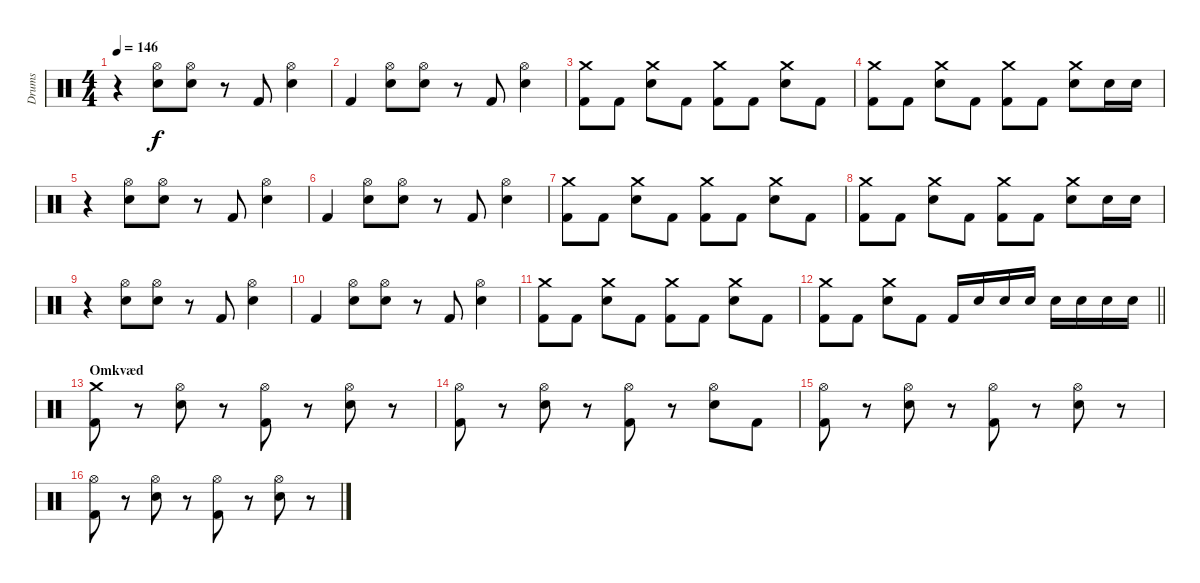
\track ("Drums" "Drums") {instrument percussion}
\staff {score}
\articulation defaults
\ts (4 4)
\tempo 146
\clef neutral
\ks c
r.4{dy f} ("Hi-Hat (open)" "Electric Snare (hit)").8 ("Hi-Hat (open)" "Electric Snare (hit)").8 r.8 "Kick (hit) 2".8 ("Hi-Hat (open)" "Electric Snare (hit)").4 |
"Kick (hit) 2".4 ("Hi-Hat (open)" "Electric Snare (hit)").8 ("Hi-Hat (open)" "Electric Snare (hit)").8 r.8 "Kick (hit) 2".8 ("Hi-Hat (open)" "Electric Snare (hit)").4 |
("Crash medium (hit)" "Kick (hit) 2").8 "Kick (hit) 2".8 ("Crash medium (hit)" "Electric Snare (hit)").8 "Kick (hit) 2".8 ("Crash medium (hit)" "Kick (hit) 2").8 "Kick (hit) 2".8 ("Crash medium (hit)" "Electric Snare (hit)").8 "Kick (hit) 2".8 |
("Crash medium (hit)" "Kick (hit) 2").8 "Kick (hit) 2".8 ("Crash medium (hit)" "Electric Snare (hit)").8 "Kick (hit) 2".8 ("Crash medium (hit)" "Kick (hit) 2").8 "Kick (hit) 2".8 ("Crash medium (hit)" "Electric Snare (hit)").8 "Electric Snare (hit)".16 "Electric Snare (hit)".16 |
r.4 ("Hi-Hat (open)" "Electric Snare (hit)").8 ("Hi-Hat (open)" "Electric Snare (hit)").8 r.8 "Kick (hit) 2".8 ("Hi-Hat (open)" "Electric Snare (hit)").4 |
"Kick (hit) 2".4 ("Hi-Hat (open)" "Electric Snare (hit)").8 ("Hi-Hat (open)" "Electric Snare (hit)").8 r.8 "Kick (hit) 2".8 ("Hi-Hat (open)" "Electric Snare (hit)").4 |
("Crash medium (hit)" "Kick (hit) 2").8 "Kick (hit) 2".8 ("Crash medium (hit)" "Electric Snare (hit)").8 "Kick (hit) 2".8 ("Crash medium (hit)" "Kick (hit) 2").8 "Kick (hit) 2".8 ("Crash medium (hit)" "Electric Snare (hit)").8 "Kick (hit) 2".8 |
("Crash medium (hit)" "Kick (hit) 2").8 "Kick (hit) 2".8 ("Crash medium (hit)" "Electric Snare (hit)").8 "Kick (hit) 2".8 ("Crash medium (hit)" "Kick (hit) 2").8 "Kick (hit) 2".8 ("Crash medium (hit)" "Electric Snare (hit)").8 "Electric Snare (hit)".16 "Electric Snare (hit)".16 |
r.4 ("Hi-Hat (open)" "Electric Snare (hit)").8 ("Hi-Hat (open)" "Electric Snare (hit)").8 r.8 "Kick (hit) 2".8 ("Hi-Hat (open)" "Electric Snare (hit)").4 |
"Kick (hit) 2".4 ("Hi-Hat (open)" "Electric Snare (hit)").8 ("Hi-Hat (open)" "Electric Snare (hit)").8 r.8 "Kick (hit) 2".8 ("Hi-Hat (open)" "Electric Snare (hit)").4 |
("Crash medium (hit)" "Kick (hit) 2").8 "Kick (hit) 2".8 ("Crash medium (hit)" "Electric Snare (hit)").8 "Kick (hit) 2".8 ("Crash medium (hit)" "Kick (hit) 2").8 "Kick (hit) 2".8 ("Crash medium (hit)" "Electric Snare (hit)").8 "Kick (hit) 2".8 |
\barLineRight lightlight
("Crash medium (hit)" "Kick (hit) 2").8 "Kick (hit) 2".8 ("Crash medium (hit)" "Electric Snare (hit)").8 "Kick (hit) 2".8 "Kick (hit) 2".16 "Electric Snare (hit)".16 "Electric Snare (hit)".16 "Electric Snare (hit)".16 "Electric Snare (hit)".16 "Electric Snare (hit)".16 "Electric Snare (hit)".16 "Electric Snare (hit)".16 |
\section ("" "Omkvæd")
("Crash medium (hit)" "Kick (hit) 2").8 r.8 ("Hi-Hat (open)" "Electric Snare (hit)").8 r.8 ("Hi-Hat (open)" "Kick (hit) 2").8 r.8 ("Hi-Hat (open)" "Electric Snare (hit)").8 r.8 |
("Hi-Hat (open)" "Kick (hit) 2").8 r.8 ("Hi-Hat (open)" "Electric Snare (hit)").8 r.8 ("Hi-Hat (open)" "Kick (hit) 2").8 r.8 ("Hi-Hat (open)" "Electric Snare (hit)").8 "Kick (hit) 2".8 |
("Hi-Hat (open)" "Kick (hit) 2").8 r.8 ("Hi-Hat (open)" "Electric Snare (hit)").8 r.8 ("Hi-Hat (open)" "Kick (hit) 2").8 r.8 ("Hi-Hat (open)" "Electric Snare (hit)").8 r.8 |
("Hi-Hat (open)" "Kick (hit) 2").8 r.8 ("Hi-Hat (open)" "Electric Snare (hit)").8 r.8 ("Hi-Hat (open)" "Kick (hit) 2").8 r.8 ("Hi-Hat (open)" "Electric Snare (hit)").8 r.8
